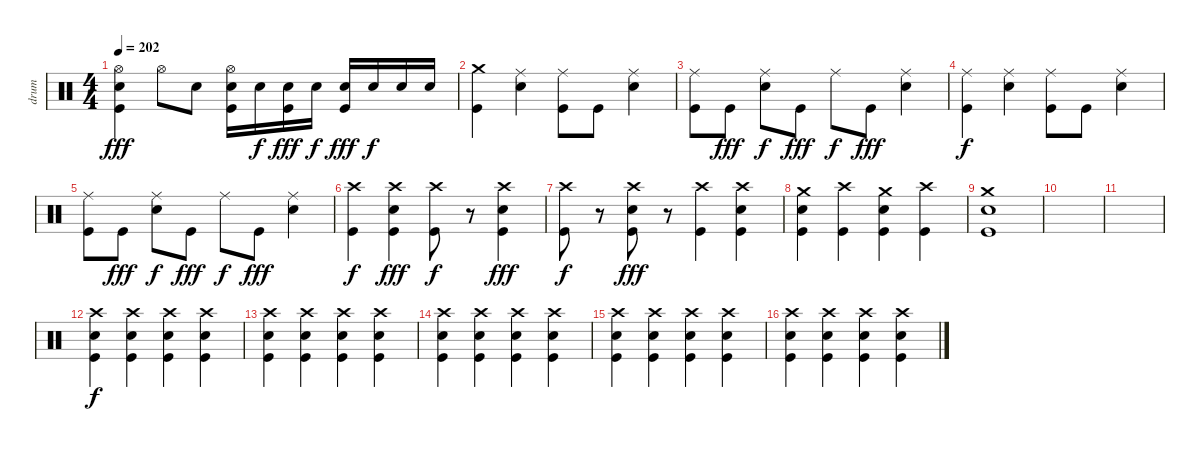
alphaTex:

\track ("drum" "drum") {instrument percussion}
\staff {score}
\articulation defaults
\ts (4 4)
\tempo 202
\clef neutral
\ks c
("Hi-Hat (open)" "Electric Snare (hit)" "Kick (hit)").4{dy fff} "Hi-Hat (open)".8 "Electric Snare (hit)".8 ("Hi-Hat (open)" "Electric Snare (hit)" "Kick (hit)").16 "Electric Snare (hit)".16{dy f} ("Electric Snare (hit)" "Kick (hit)").16{dy fff} "Electric Snare (hit)".16{dy f} ("Electric Snare (hit)" "Kick (hit)").16{dy fff} "Electric Snare (hit)".16{dy f} "Electric Snare (hit)".16 "Electric Snare (hit)".16 |
("Crash medium (hit)" "Kick (hit)").4 ("Ride (middle)" "Electric Snare (hit)").4 ("Ride (middle)" "Kick (hit)").8 "Kick (hit)".8 ("Ride (middle)" "Electric Snare (hit)").4 |
("Ride (middle)" "Kick (hit)").8 "Kick (hit)".8{dy fff} ("Ride (middle)" "Electric Snare (hit)").8{dy f} "Kick (hit)".8{dy fff} "Ride (middle)".8{dy f} "Kick (hit)".8{dy fff} ("Ride (middle)" "Electric Snare (hit)").4 |
("Ride (middle)" "Kick (hit)").4{dy f} ("Ride (middle)" "Electric Snare (hit)").4 ("Ride (middle)" "Kick (hit)").8 "Kick (hit)".8 ("Ride (middle)" "Electric Snare (hit)").4 |
("Ride (middle)" "Kick (hit)").8 "Kick (hit)".8{dy fff} ("Ride (middle)" "Electric Snare (hit)").8{dy f} "Kick (hit)".8{dy fff} "Ride (middle)".8{dy f} "Kick (hit)".8{dy fff} ("Ride (middle)" "Electric Snare (hit)").4 |
("Crash high (hit)" "Kick (hit)").4{dy f} ("Crash high (hit)" "Electric Snare (hit)" "Kick (hit)").4{dy fff} ("Crash high (hit)" "Kick (hit)").8{dy f} r.8 ("Crash high (hit)" "Electric Snare (hit)" "Kick (hit)").4{dy fff} |
("Crash high (hit)" "Kick (hit)").8{dy f} r.8 ("Crash high (hit)" "Electric Snare (hit)" "Kick (hit)").8{dy fff} r.8 ("Crash high (hit)" "Kick (hit)").4 ("Crash high (hit)" "Electric Snare (hit)" "Kick (hit)").4 |
("Crash medium (hit)" "Electric Snare (hit)" "Kick (hit)").4 ("Crash high (hit)" "Kick (hit)").4 ("Crash medium (hit)" "Electric Snare (hit)" "Kick (hit)").4 ("Crash high (hit)" "Kick (hit)").4 |
("Crash medium (hit)" "Electric Snare (hit)" "Kick (hit)").1 |
|
|
("Crash high (hit)" "Electric Snare (hit)" "Kick (hit)").4{dy f} ("Crash high (hit)" "Electric Snare (hit)" "Kick (hit)").4 ("Crash high (hit)" "Electric Snare (hit)" "Kick (hit)").4 ("Crash high (hit)" "Electric Snare (hit)" "Kick (hit)").4 |
("Crash high (hit)" "Electric Snare (hit)" "Kick (hit)").4 ("Crash high (hit)" "Electric Snare (hit)" "Kick (hit)").4 ("Crash high (hit)" "Electric Snare (hit)" "Kick (hit)").4 ("Crash high (hit)" "Electric Snare (hit)" "Kick (hit)").4 |
("Crash high (hit)" "Electric Snare (hit)" "Kick (hit)").4 ("Crash high (hit)" "Electric Snare (hit)" "Kick (hit)").4 ("Crash high (hit)" "Electric Snare (hit)" "Kick (hit)").4 ("Crash high (hit)" "Electric Snare (hit)" "Kick (hit)").4 |
("Crash high (hit)" "Electric Snare (hit)" "Kick (hit)").4 ("Crash high (hit)" "Electric Snare (hit)" "Kick (hit)").4 ("Crash high (hit)" "Electric Snare (hit)" "Kick (hit)").4 ("Crash high (hit)" "Electric Snare (hit)" "Kick (hit)").4 |
("Crash high (hit)" "Electric Snare (hit)" "Kick (hit)").4 ("Crash high (hit)" "Electric Snare (hit)" "Kick (hit)").4 ("Crash high (hit)" "Electric Snare (hit)" "Kick (hit)").4 ("Crash high (hit)" "Electric Snare (hit)" "Kick (hit)").4
